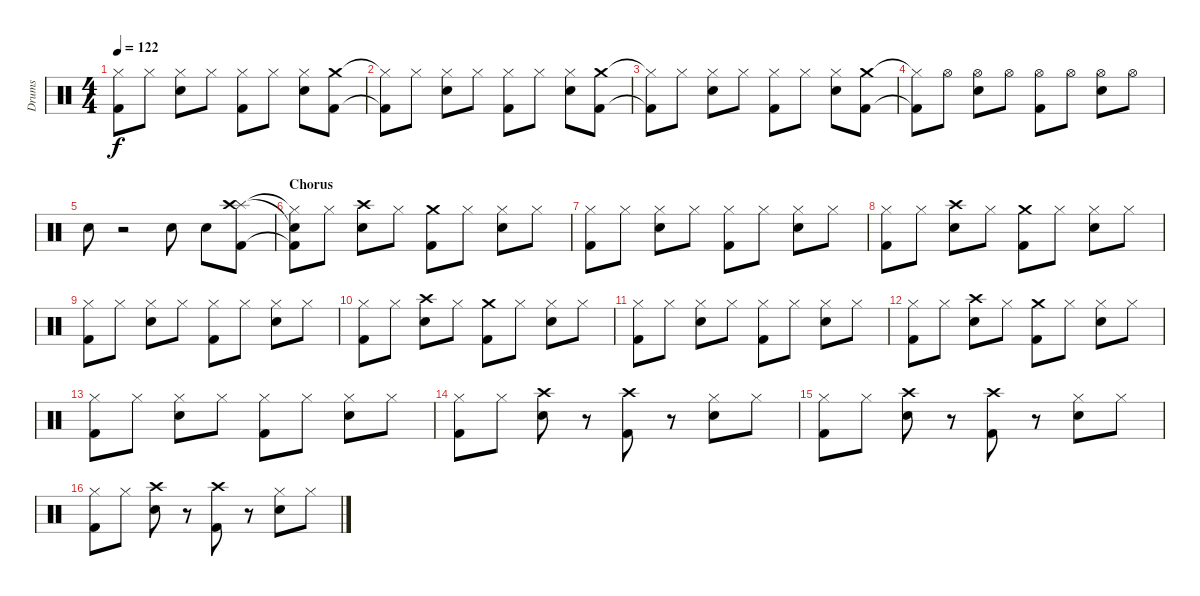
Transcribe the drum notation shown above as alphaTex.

\track ("Drums" "Drums") {instrument percussion}
\staff {score}
\articulation defaults
\ts (4 4)
\tempo 122
\clef neutral
\ks c
("Hi-Hat (closed)"{t} "Kick (hit) 2"{t}).8{dy f} "Hi-Hat (closed)".8 ("Hi-Hat (closed)" "Electric Snare (hit)").8 "Hi-Hat (closed)".8 ("Hi-Hat (closed)" "Kick (hit) 2").8 "Hi-Hat (closed)".8 ("Hi-Hat (closed)" "Electric Snare (hit)").8 ("Crash medium (hit)" "Kick (hit) 2").8 |
("Hi-Hat (closed)"{t} "Kick (hit) 2"{t}).8 "Hi-Hat (closed)".8 ("Hi-Hat (closed)" "Electric Snare (hit)").8 "Hi-Hat (closed)".8 ("Hi-Hat (closed)" "Kick (hit) 2").8 "Hi-Hat (closed)".8 ("Hi-Hat (closed)" "Electric Snare (hit)").8 ("Crash medium (hit)" "Kick (hit) 2").8 |
("Hi-Hat (closed)"{t} "Kick (hit) 2"{t}).8 "Hi-Hat (closed)".8 ("Hi-Hat (closed)" "Electric Snare (hit)").8 "Hi-Hat (closed)".8 ("Hi-Hat (closed)" "Kick (hit) 2").8 "Hi-Hat (closed)".8 ("Hi-Hat (closed)" "Electric Snare (hit)").8 ("Crash medium (hit)" "Kick (hit) 2").8 |
("Hi-Hat (closed)"{t} "Kick (hit) 2"{t}).8 "Hi-Hat (open)".8 ("Hi-Hat (open)" "Electric Snare (hit)").8 "Hi-Hat (open)".8 ("Hi-Hat (open)" "Kick (hit) 2").8 "Hi-Hat (open)".8 ("Hi-Hat (open)" "Electric Snare (hit)").8 "Hi-Hat (open)".8 |
"Electric Snare (hit)".8 r.2 "Electric Snare (hit)".8 "Electric Snare (hit)".8 ("Splash (hit)" "Crash high (hit)" "Kick (hit) 2").8 |
\section ("" "Chorus")
("Hi-Hat (closed)"{t} "Snare (hit)"{t} "Kick (hit) 2"{t}).8 "Hi-Hat (closed)".8 ("Crash high (hit)" "Electric Snare (hit)").8 "Hi-Hat (closed)".8 ("Crash medium (hit)" "Kick (hit) 2").8 "Hi-Hat (closed)".8 ("Hi-Hat (closed)" "Electric Snare (hit)").8 "Hi-Hat (closed)".8 |
("Hi-Hat (closed)" "Kick (hit) 2").8 "Hi-Hat (closed)".8 ("Hi-Hat (closed)" "Electric Snare (hit)").8 "Hi-Hat (closed)".8 ("Hi-Hat (closed)" "Kick (hit) 2").8 "Hi-Hat (closed)".8 ("Hi-Hat (closed)" "Electric Snare (hit)").8 "Hi-Hat (closed)".8 |
("Hi-Hat (closed)" "Kick (hit) 2").8 "Hi-Hat (closed)".8 ("Crash high (hit)" "Electric Snare (hit)").8 "Hi-Hat (closed)".8 ("Crash medium (hit)" "Kick (hit) 2").8 "Hi-Hat (closed)".8 ("Hi-Hat (closed)" "Electric Snare (hit)").8 "Hi-Hat (closed)".8 |
("Hi-Hat (closed)" "Kick (hit) 2").8 "Hi-Hat (closed)".8 ("Hi-Hat (closed)" "Electric Snare (hit)").8 "Hi-Hat (closed)".8 ("Hi-Hat (closed)" "Kick (hit) 2").8 "Hi-Hat (closed)".8 ("Hi-Hat (closed)" "Electric Snare (hit)").8 "Hi-Hat (closed)".8 |
("Hi-Hat (closed)" "Kick (hit) 2").8 "Hi-Hat (closed)".8 ("Crash high (hit)" "Electric Snare (hit)").8 "Hi-Hat (closed)".8 ("Crash medium (hit)" "Kick (hit) 2").8 "Hi-Hat (closed)".8 ("Hi-Hat (closed)" "Electric Snare (hit)").8 "Hi-Hat (closed)".8 |
("Hi-Hat (closed)" "Kick (hit) 2").8 "Hi-Hat (closed)".8 ("Hi-Hat (closed)" "Electric Snare (hit)").8 "Hi-Hat (closed)".8 ("Hi-Hat (closed)" "Kick (hit) 2").8 "Hi-Hat (closed)".8 ("Hi-Hat (closed)" "Electric Snare (hit)").8 "Hi-Hat (closed)".8 |
("Hi-Hat (closed)" "Kick (hit) 2").8 "Hi-Hat (closed)".8 ("Crash high (hit)" "Electric Snare (hit)").8 "Hi-Hat (closed)".8 ("Crash medium (hit)" "Kick (hit) 2").8 "Hi-Hat (closed)".8 ("Hi-Hat (closed)" "Electric Snare (hit)").8 "Hi-Hat (closed)".8 |
("Hi-Hat (closed)" "Kick (hit) 2").8 "Hi-Hat (closed)".8 ("Hi-Hat (closed)" "Electric Snare (hit)").8 "Hi-Hat (closed)".8 ("Hi-Hat (closed)" "Kick (hit) 2").8 "Hi-Hat (closed)".8 ("Hi-Hat (closed)" "Electric Snare (hit)").8 "Hi-Hat (closed)".8 |
("Hi-Hat (closed)" "Kick (hit) 2").8 "Hi-Hat (closed)".8 ("Crash high (hit)" "Electric Snare (hit)").8 r.8 ("Crash high (hit)" "Kick (hit) 2").8 r.8 ("Hi-Hat (closed)" "Electric Snare (hit)").8 "Hi-Hat (closed)".8 |
("Hi-Hat (closed)" "Kick (hit) 2").8 "Hi-Hat (closed)".8 ("Crash high (hit)" "Electric Snare (hit)").8 r.8 ("Crash high (hit)" "Kick (hit) 2").8 r.8 ("Hi-Hat (closed)" "Electric Snare (hit)").8 "Hi-Hat (closed)".8 |
("Hi-Hat (closed)" "Kick (hit) 2").8 "Hi-Hat (closed)".8 ("Crash high (hit)" "Electric Snare (hit)").8 r.8 ("Crash high (hit)" "Kick (hit) 2").8 r.8 ("Hi-Hat (closed)" "Electric Snare (hit)").8 "Hi-Hat (closed)".8
